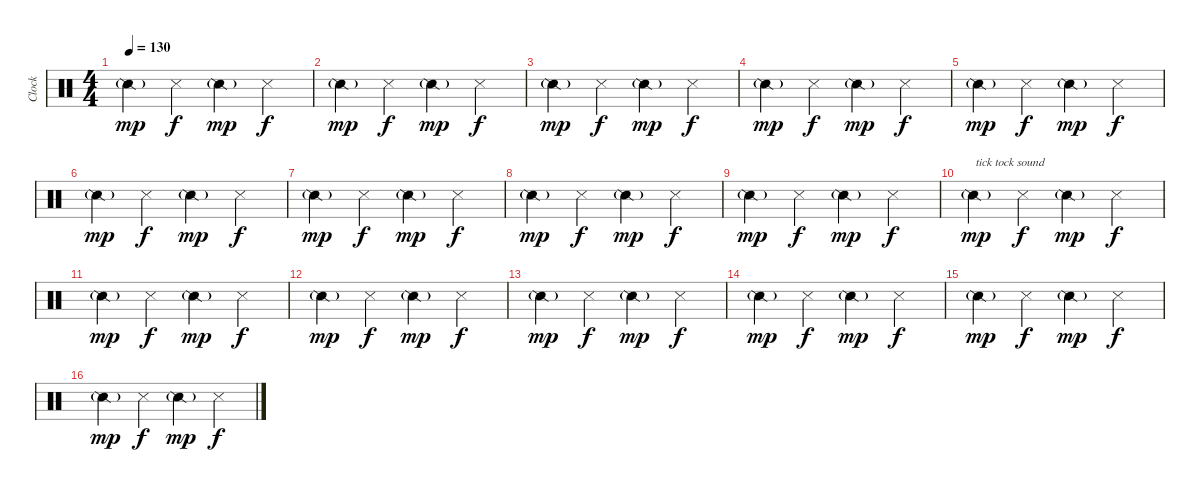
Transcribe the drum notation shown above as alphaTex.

\track ("Clock" "Clock") {instrument percussion}
\staff {score}
\articulation defaults
\ts (4 4)
\tempo 130
\clef neutral
\ks c "Snare (side stick) 2"{g}.4{dy mp} "Metronome (hit)".4{dy f} "Snare (side stick) 2"{g}.4{dy mp} "Metronome (hit)".4{dy f}
|
"Snare (side stick) 2"{g}.4{dy mp} "Metronome (hit)".4{dy f} "Snare (side stick) 2"{g}.4{dy mp} "Metronome (hit)".4{dy f} |
"Snare (side stick) 2"{g}.4{dy mp} "Metronome (hit)".4{dy f} "Snare (side stick) 2"{g}.4{dy mp} "Metronome (hit)".4{dy f} |
"Snare (side stick) 2"{g}.4{dy mp} "Metronome (hit)".4{dy f} "Snare (side stick) 2"{g}.4{dy mp} "Metronome (hit)".4{dy f} |
"Snare (side stick) 2"{g}.4{dy mp} "Metronome (hit)".4{dy f} "Snare (side stick) 2"{g}.4{dy mp} "Metronome (hit)".4{dy f} |
"Snare (side stick) 2"{g}.4{dy mp} "Metronome (hit)".4{dy f} "Snare (side stick) 2"{g}.4{dy mp} "Metronome (hit)".4{dy f} |
"Snare (side stick) 2"{g}.4{dy mp} "Metronome (hit)".4{dy f} "Snare (side stick) 2"{g}.4{dy mp} "Metronome (hit)".4{dy f} |
"Snare (side stick) 2"{g}.4{dy mp} "Metronome (hit)".4{dy f} "Snare (side stick) 2"{g}.4{dy mp} "Metronome (hit)".4{dy f} |
"Snare (side stick) 2"{g}.4{dy mp} "Metronome (hit)".4{dy f} "Snare (side stick) 2"{g}.4{dy mp} "Metronome (hit)".4{dy f} |
"Snare (side stick) 2"{g}.4{txt "tick tock sound" dy mp} "Metronome (hit)".4{dy f} "Snare (side stick) 2"{g}.4{dy mp} "Metronome (hit)".4{dy f} |
"Snare (side stick) 2"{g}.4{dy mp} "Metronome (hit)".4{dy f} "Snare (side stick) 2"{g}.4{dy mp} "Metronome (hit)".4{dy f} |
"Snare (side stick) 2"{g}.4{dy mp} "Metronome (hit)".4{dy f} "Snare (side stick) 2"{g}.4{dy mp} "Metronome (hit)".4{dy f} |
"Snare (side stick) 2"{g}.4{dy mp} "Metronome (hit)".4{dy f} "Snare (side stick) 2"{g}.4{dy mp} "Metronome (hit)".4{dy f} |
"Snare (side stick) 2"{g}.4{dy mp} "Metronome (hit)".4{dy f} "Snare (side stick) 2"{g}.4{dy mp} "Metronome (hit)".4{dy f} |
"Snare (side stick) 2"{g}.4{dy mp} "Metronome (hit)".4{dy f} "Snare (side stick) 2"{g}.4{dy mp} "Metronome (hit)".4{dy f} |
"Snare (side stick) 2"{g}.4{dy mp} "Metronome (hit)".4{dy f} "Snare (side stick) 2"{g}.4{dy mp} "Metronome (hit)".4{dy f}
